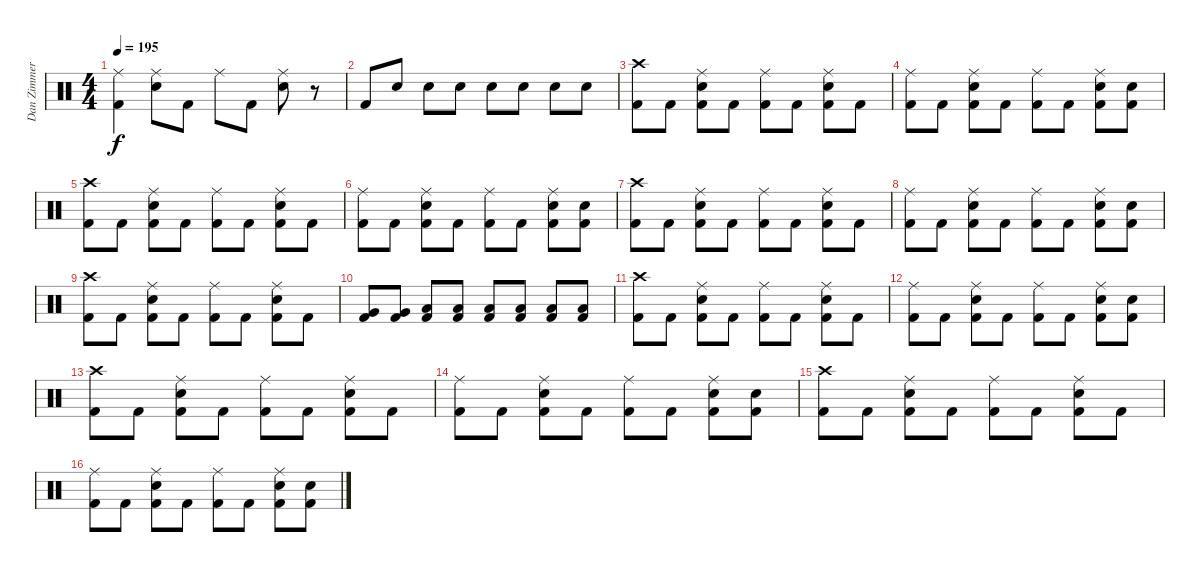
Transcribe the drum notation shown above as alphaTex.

\track ("Dan Zimmermann" "Dan Zimmer") {instrument percussion}
\staff {score}
\articulation defaults
\ts (4 4)
\tempo 195
\clef neutral
\ks c
("Ride (middle)" "Kick (hit) 2").4{dy f} ("Ride (middle)" "Electric Snare (hit)").8 "Kick (hit) 2".8 "Ride (middle)".8 "Kick (hit) 2".8 ("Ride (middle)" "Electric Snare (hit)").8 r.8 |
"Kick (hit) 2".8 "Electric Snare (hit)".8 "Electric Snare (hit)".8 "Electric Snare (hit)".8 "Electric Snare (hit)".8 "Electric Snare (hit)".8 "Electric Snare (hit)".8 "Electric Snare (hit)".8 |
("Crash high (hit)" "Kick (hit) 2").8 "Kick (hit) 2".8 ("Ride (middle)" "Electric Snare (hit)" "Kick (hit) 2").8 "Kick (hit) 2".8 ("Ride (middle)" "Kick (hit) 2").8 "Kick (hit) 2".8 ("Ride (middle)" "Electric Snare (hit)" "Kick (hit) 2").8 "Kick (hit) 2".8 |
("Ride (middle)" "Kick (hit) 2").8 "Kick (hit) 2".8 ("Ride (middle)" "Electric Snare (hit)" "Kick (hit) 2").8 "Kick (hit) 2".8 ("Ride (middle)" "Kick (hit) 2").8 "Kick (hit) 2".8 ("Ride (middle)" "Electric Snare (hit)" "Kick (hit) 2").8 ("Electric Snare (hit)" "Kick (hit) 2").8 |
("Crash high (hit)" "Kick (hit) 2").8 "Kick (hit) 2".8 ("Ride (middle)" "Electric Snare (hit)" "Kick (hit) 2").8 "Kick (hit) 2".8 ("Ride (middle)" "Kick (hit) 2").8 "Kick (hit) 2".8 ("Ride (middle)" "Electric Snare (hit)" "Kick (hit) 2").8 "Kick (hit) 2".8 |
("Ride (middle)" "Kick (hit) 2").8 "Kick (hit) 2".8 ("Ride (middle)" "Electric Snare (hit)" "Kick (hit) 2").8 "Kick (hit) 2".8 ("Ride (middle)" "Kick (hit) 2").8 "Kick (hit) 2".8 ("Ride (middle)" "Electric Snare (hit)" "Kick (hit) 2").8 ("Electric Snare (hit)" "Kick (hit) 2").8 |
("Crash high (hit)" "Kick (hit) 2").8 "Kick (hit) 2".8 ("Ride (middle)" "Electric Snare (hit)" "Kick (hit) 2").8 "Kick (hit) 2".8 ("Ride (middle)" "Kick (hit) 2").8 "Kick (hit) 2".8 ("Ride (middle)" "Electric Snare (hit)" "Kick (hit) 2").8 "Kick (hit) 2".8 |
("Ride (middle)" "Kick (hit) 2").8 "Kick (hit) 2".8 ("Ride (middle)" "Electric Snare (hit)" "Kick (hit) 2").8 "Kick (hit) 2".8 ("Ride (middle)" "Kick (hit) 2").8 "Kick (hit) 2".8 ("Ride (middle)" "Electric Snare (hit)" "Kick (hit) 2").8 ("Electric Snare (hit)" "Kick (hit) 2").8 |
("Crash high (hit)" "Kick (hit) 2").8 "Kick (hit) 2".8 ("Ride (middle)" "Electric Snare (hit)" "Kick (hit) 2").8 "Kick (hit) 2".8 ("Ride (middle)" "Kick (hit) 2").8 "Kick (hit) 2".8 ("Ride (middle)" "Electric Snare (hit)" "Kick (hit) 2").8 "Kick (hit) 2".8 |
("Very Low Tom (hit)" "Kick (hit) 2").8 ("Very Low Tom (hit)" "Kick (hit) 2").8 ("Low Tom (hit)" "Kick (hit) 2").8 ("Low Tom (hit)" "Kick (hit) 2").8 ("Low Tom (hit)" "Kick (hit) 2").8 ("Low Tom (hit)" "Kick (hit) 2").8 ("Low Tom (hit)" "Kick (hit) 2").8 ("Low Tom (hit)" "Kick (hit) 2").8 |
("Crash high (hit)" "Kick (hit) 2").8 "Kick (hit) 2".8 ("Ride (middle)" "Electric Snare (hit)" "Kick (hit) 2").8 "Kick (hit) 2".8 ("Ride (middle)" "Kick (hit) 2").8 "Kick (hit) 2".8 ("Ride (middle)" "Electric Snare (hit)" "Kick (hit) 2").8 "Kick (hit) 2".8 |
("Ride (middle)" "Kick (hit) 2").8 "Kick (hit) 2".8 ("Ride (middle)" "Electric Snare (hit)" "Kick (hit) 2").8 "Kick (hit) 2".8 ("Ride (middle)" "Kick (hit) 2").8 "Kick (hit) 2".8 ("Ride (middle)" "Electric Snare (hit)" "Kick (hit) 2").8 ("Electric Snare (hit)" "Kick (hit) 2").8 |
("Crash high (hit)" "Kick (hit) 2").8 "Kick (hit) 2".8 ("Ride (middle)" "Electric Snare (hit)" "Kick (hit) 2").8 "Kick (hit) 2".8 ("Ride (middle)" "Kick (hit) 2").8 "Kick (hit) 2".8 ("Ride (middle)" "Electric Snare (hit)" "Kick (hit) 2").8 "Kick (hit) 2".8 |
("Ride (middle)" "Kick (hit) 2").8 "Kick (hit) 2".8 ("Ride (middle)" "Electric Snare (hit)" "Kick (hit) 2").8 "Kick (hit) 2".8 ("Ride (middle)" "Kick (hit) 2").8 "Kick (hit) 2".8 ("Ride (middle)" "Electric Snare (hit)" "Kick (hit) 2").8 ("Electric Snare (hit)" "Kick (hit) 2").8 |
("Crash high (hit)" "Kick (hit) 2").8 "Kick (hit) 2".8 ("Ride (middle)" "Electric Snare (hit)" "Kick (hit) 2").8 "Kick (hit) 2".8 ("Ride (middle)" "Kick (hit) 2").8 "Kick (hit) 2".8 ("Ride (middle)" "Electric Snare (hit)" "Kick (hit) 2").8 "Kick (hit) 2".8 |
("Ride (middle)" "Kick (hit) 2").8 "Kick (hit) 2".8 ("Ride (middle)" "Electric Snare (hit)" "Kick (hit) 2").8 "Kick (hit) 2".8 ("Ride (middle)" "Kick (hit) 2").8 "Kick (hit) 2".8 ("Ride (middle)" "Electric Snare (hit)" "Kick (hit) 2").8 ("Electric Snare (hit)" "Kick (hit) 2").8
